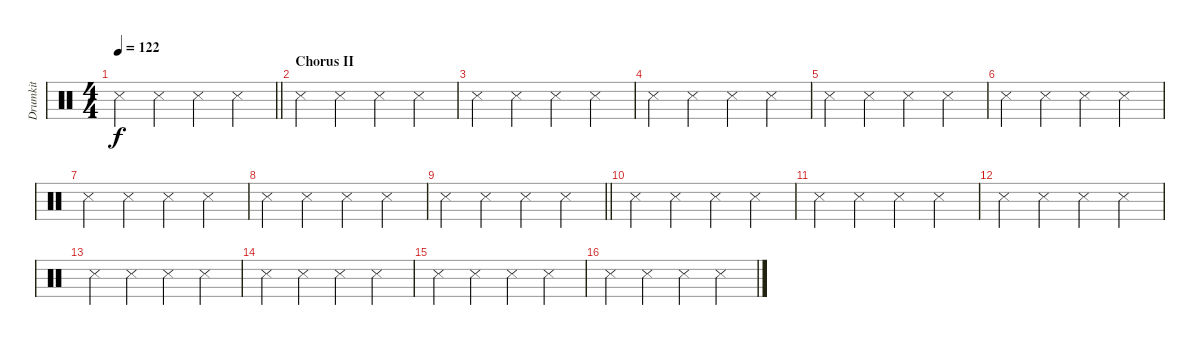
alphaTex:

\track ("Drumkit" "Drumkit") {mute instrument percussion}
\staff {score}
\articulation defaults
\ts (4 4)
\tempo 122
\clef neutral
\barLineRight lightlight
\ks c "Snare (side stick) 3".4{dy f} "Snare (side stick) 3".4 "Snare (side stick) 3".4 "Snare (side stick) 3".4
|
\section ("" "Chorus II")
"Snare (side stick) 3".4 "Snare (side stick) 3".4 "Snare (side stick) 3".4 "Snare (side stick) 3".4 |
"Snare (side stick) 3".4 "Snare (side stick) 3".4 "Snare (side stick) 3".4 "Snare (side stick) 3".4 |
"Snare (side stick) 3".4 "Snare (side stick) 3".4 "Snare (side stick) 3".4 "Snare (side stick) 3".4 |
"Snare (side stick) 3".4 "Snare (side stick) 3".4 "Snare (side stick) 3".4 "Snare (side stick) 3".4 |
"Snare (side stick) 3".4 "Snare (side stick) 3".4 "Snare (side stick) 3".4 "Snare (side stick) 3".4 |
"Snare (side stick) 3".4 "Snare (side stick) 3".4 "Snare (side stick) 3".4 "Snare (side stick) 3".4 |
"Snare (side stick) 3".4 "Snare (side stick) 3".4 "Snare (side stick) 3".4 "Snare (side stick) 3".4 |
\barLineRight lightlight "Snare (side stick) 3".4 "Snare (side stick) 3".4 "Snare (side stick) 3".4 "Snare (side stick) 3".4
|
"Snare (side stick) 3".4 "Snare (side stick) 3".4 "Snare (side stick) 3".4 "Snare (side stick) 3".4 |
"Snare (side stick) 3".4 "Snare (side stick) 3".4 "Snare (side stick) 3".4 "Snare (side stick) 3".4 |
"Snare (side stick) 3".4 "Snare (side stick) 3".4 "Snare (side stick) 3".4 "Snare (side stick) 3".4 |
"Snare (side stick) 3".4 "Snare (side stick) 3".4 "Snare (side stick) 3".4 "Snare (side stick) 3".4 |
"Snare (side stick) 3".4 "Snare (side stick) 3".4 "Snare (side stick) 3".4 "Snare (side stick) 3".4 |
"Snare (side stick) 3".4 "Snare (side stick) 3".4 "Snare (side stick) 3".4 "Snare (side stick) 3".4 |
"Snare (side stick) 3".4 "Snare (side stick) 3".4 "Snare (side stick) 3".4 "Snare (side stick) 3".4
